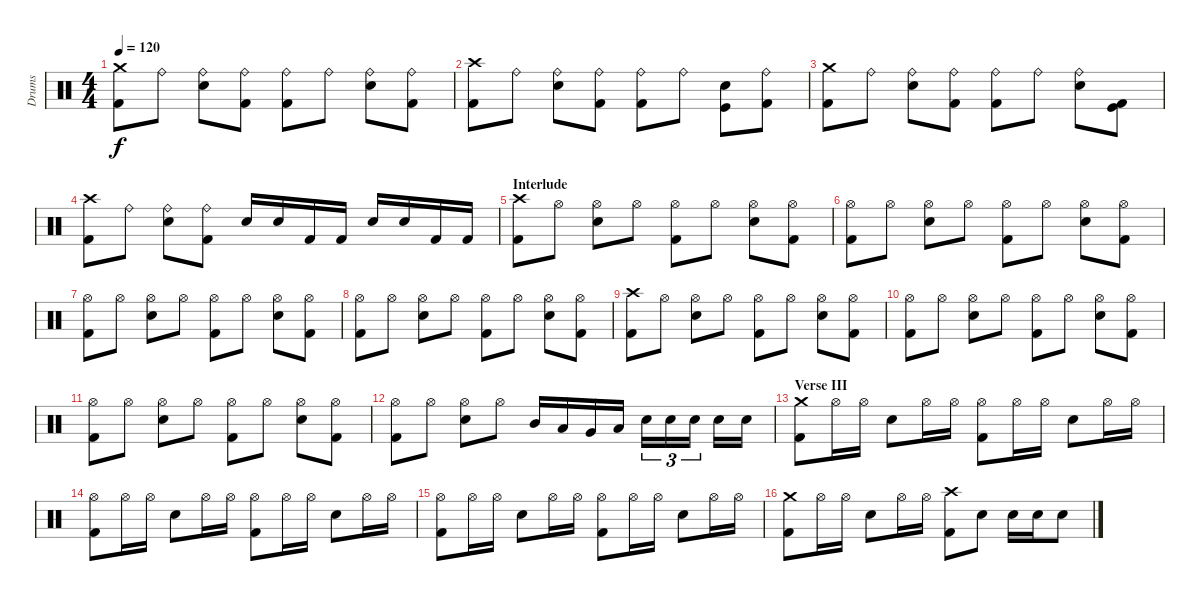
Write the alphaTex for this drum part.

\track ("Drums" "Drums") {instrument percussion}
\staff {score}
\articulation defaults
\ts (4 4)
\tempo 120
\clef neutral
\ks c
("Kick (hit) 2" "Crash medium (hit)").8{dy f} "Ride (bell)".8 ("Snare (hit) 2" "Ride (bell)").8 ("Kick (hit) 2" "Ride (bell)").8 ("Kick (hit) 2" "Ride (bell)").8 "Ride (bell)".8 ("Snare (hit) 2" "Ride (bell)").8 ("Kick (hit) 2" "Ride (bell)").8 |
("Kick (hit) 2" "Crash high (hit)").8 "Ride (bell)".8 ("Snare (hit) 2" "Ride (bell)").8 ("Kick (hit) 2" "Ride (bell)").8 ("Kick (hit) 2" "Ride (bell)").8 "Ride (bell)".8 ("Snare (hit) 2" "Kick (hit)").8 ("Kick (hit) 2" "Ride (bell)").8 |
("Kick (hit) 2" "Crash medium (hit)").8 "Ride (bell)".8 ("Snare (hit) 2" "Ride (bell)").8 ("Kick (hit) 2" "Ride (bell)").8 ("Kick (hit) 2" "Ride (bell)").8 "Ride (bell)".8 ("Snare (hit) 2" "Ride (bell)").8 ("Kick (hit) 2" "Kick (hit)").8 |
("Kick (hit) 2" "Crash high (hit)").8 "Ride (bell)".8 ("Snare (hit) 2" "Ride (bell)").8 ("Kick (hit) 2" "Ride (bell)").8 "Snare (hit) 2".16 "Snare (hit) 2".16 "Kick (hit) 2".16 "Kick (hit) 2".16 "Snare (hit) 2".16 "Snare (hit) 2".16 "Kick (hit) 2".16 "Kick (hit) 2".16 |
\section ("" "Interlude")
("Kick (hit) 2" "Crash high (hit)").8 "Hi-Hat (open)".8 ("Snare (hit) 2" "Hi-Hat (open)").8 "Hi-Hat (open)".8 ("Kick (hit) 2" "Hi-Hat (open)").8 "Hi-Hat (open)".8 ("Snare (hit) 2" "Hi-Hat (open)").8 ("Kick (hit) 2" "Hi-Hat (open)").8 |
("Kick (hit) 2" "Hi-Hat (open)").8 "Hi-Hat (open)".8 ("Snare (hit) 2" "Hi-Hat (open)").8 "Hi-Hat (open)".8 ("Kick (hit) 2" "Hi-Hat (open)").8 "Hi-Hat (open)".8 ("Snare (hit) 2" "Hi-Hat (open)").8 ("Kick (hit) 2" "Hi-Hat (open)").8 |
("Kick (hit) 2" "Hi-Hat (open)").8 "Hi-Hat (open)".8 ("Snare (hit) 2" "Hi-Hat (open)").8 "Hi-Hat (open)".8 ("Kick (hit) 2" "Hi-Hat (open)").8 "Hi-Hat (open)".8 ("Snare (hit) 2" "Hi-Hat (open)").8 ("Kick (hit) 2" "Hi-Hat (open)").8 |
("Kick (hit) 2" "Hi-Hat (open)").8 "Hi-Hat (open)".8 ("Snare (hit) 2" "Hi-Hat (open)").8 "Hi-Hat (open)".8 ("Kick (hit) 2" "Hi-Hat (open)").8 "Hi-Hat (open)".8 ("Snare (hit) 2" "Hi-Hat (open)").8 ("Kick (hit) 2" "Hi-Hat (open)").8 |
("Kick (hit) 2" "Crash high (hit)").8 "Hi-Hat (open)".8 ("Snare (hit) 2" "Hi-Hat (open)").8 "Hi-Hat (open)".8 ("Kick (hit) 2" "Hi-Hat (open)").8 "Hi-Hat (open)".8 ("Snare (hit) 2" "Hi-Hat (open)").8 ("Kick (hit) 2" "Hi-Hat (open)").8 |
("Kick (hit) 2" "Hi-Hat (open)").8 "Hi-Hat (open)".8 ("Snare (hit) 2" "Hi-Hat (open)").8 "Hi-Hat (open)".8 ("Kick (hit) 2" "Hi-Hat (open)").8 "Hi-Hat (open)".8 ("Snare (hit) 2" "Hi-Hat (open)").8 ("Kick (hit) 2" "Hi-Hat (open)").8 |
("Kick (hit) 2" "Hi-Hat (open)").8 "Hi-Hat (open)".8 ("Snare (hit) 2" "Hi-Hat (open)").8 "Hi-Hat (open)".8 ("Kick (hit) 2" "Hi-Hat (open)").8 "Hi-Hat (open)".8 ("Snare (hit) 2" "Hi-Hat (open)").8 ("Kick (hit) 2" "Hi-Hat (open)").8 |
("Kick (hit) 2" "Hi-Hat (open)").8 "Hi-Hat (open)".8 ("Snare (hit) 2" "Hi-Hat (open)").8 "Hi-Hat (open)".8 "Mid Tom (hit)".16 "Low Tom (hit)".16 "Very Low Tom (hit)".16 "Low Floor Tom (hit)".16 "Snare (hit) 2".16{tu (3 2)} "Snare (hit) 2".16{tu (3 2)} "Snare (hit) 2".16{tu (3 2)} "Snare (hit) 2".16 "Snare (hit) 2".16 |
\section ("" "Verse III")
("Kick (hit) 2" "Crash medium (hit)").8 "Hi-Hat (open)".16 "Hi-Hat (open)".16 "Snare (hit) 2".8 "Hi-Hat (open)".16 "Hi-Hat (open)".16 ("Kick (hit) 2" "Hi-Hat (open)").8 "Hi-Hat (open)".16 "Hi-Hat (open)".16 "Snare (hit) 2".8 "Hi-Hat (open)".16 "Hi-Hat (open)".16 |
("Kick (hit) 2" "Hi-Hat (open)").8 "Hi-Hat (open)".16 "Hi-Hat (open)".16 "Snare (hit) 2".8 "Hi-Hat (open)".16 "Hi-Hat (open)".16 ("Kick (hit) 2" "Hi-Hat (open)").8 "Hi-Hat (open)".16 "Hi-Hat (open)".16 "Snare (hit) 2".8 "Hi-Hat (open)".16 "Hi-Hat (open)".16 |
("Kick (hit) 2" "Hi-Hat (open)").8 "Hi-Hat (open)".16 "Hi-Hat (open)".16 "Snare (hit) 2".8 "Hi-Hat (open)".16 "Hi-Hat (open)".16 ("Kick (hit) 2" "Hi-Hat (open)").8 "Hi-Hat (open)".16 "Hi-Hat (open)".16 "Snare (hit) 2".8 "Hi-Hat (open)".16 "Hi-Hat (open)".16 |
("Kick (hit) 2" "Crash medium (hit)").8 "Hi-Hat (open)".16 "Hi-Hat (open)".16 "Snare (hit) 2".8 "Hi-Hat (open)".16 "Hi-Hat (open)".16 ("Kick (hit) 2" "Crash high (hit)").8 "Snare (hit) 2".8 "Snare (hit) 2".16 "Snare (hit) 2".16 "Snare (hit) 2".8
